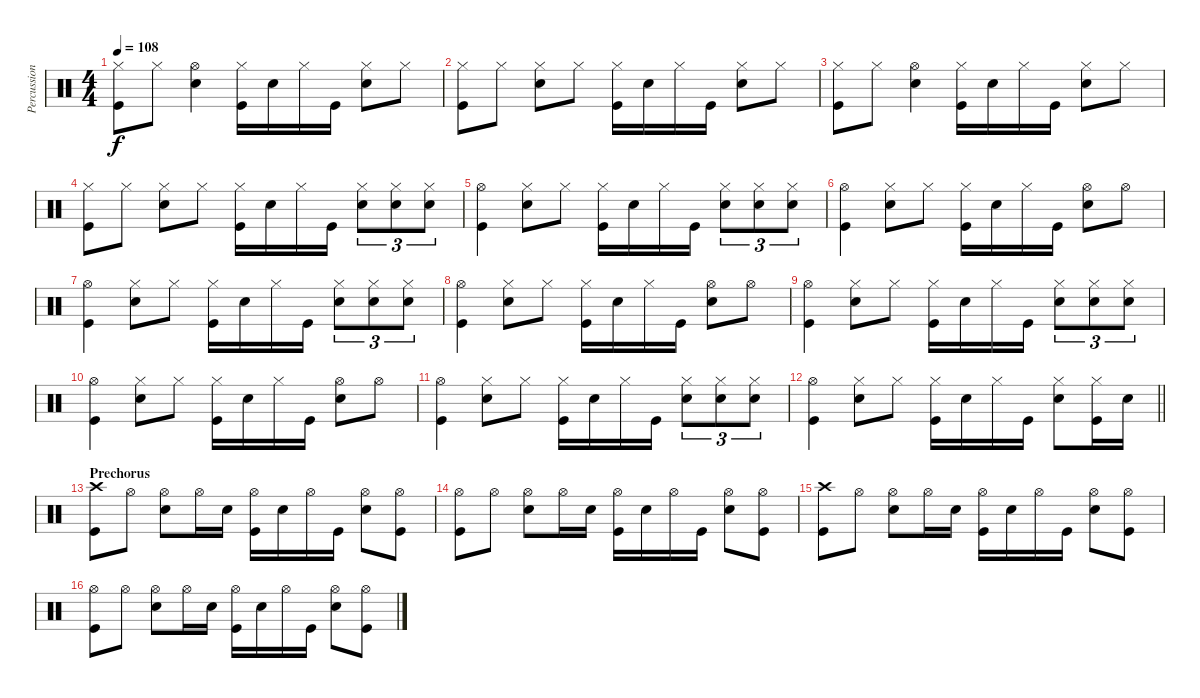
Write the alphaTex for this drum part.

\track ("Percussion" "Percussion") {instrument percussion}
\staff {score}
\articulation defaults
\ts (4 4)
\tempo 108
\clef neutral
\ks c
("Hi-Hat (closed)" "Kick (hit)").8{dy f} "Hi-Hat (closed)".8 ("Hi-Hat (open)" "Electric Snare (hit)").4 ("Hi-Hat (closed)" "Kick (hit)").16 "Electric Snare (hit)".16 "Hi-Hat (closed)".16 "Kick (hit)".16 ("Hi-Hat (closed)" "Electric Snare (hit)").8 "Hi-Hat (closed)".8 |
("Hi-Hat (closed)" "Kick (hit)").8 "Hi-Hat (closed)".8 ("Hi-Hat (closed)" "Electric Snare (hit)").8 "Hi-Hat (closed)".8 ("Hi-Hat (closed)" "Kick (hit)").16 "Electric Snare (hit)".16 "Hi-Hat (closed)".16 "Kick (hit)".16 ("Hi-Hat (closed)" "Electric Snare (hit)").8 "Hi-Hat (closed)".8 |
("Hi-Hat (closed)" "Kick (hit)").8 "Hi-Hat (closed)".8 ("Hi-Hat (open)" "Electric Snare (hit)").4 ("Hi-Hat (closed)" "Kick (hit)").16 "Electric Snare (hit)".16 "Hi-Hat (closed)".16 "Kick (hit)".16 ("Hi-Hat (closed)" "Electric Snare (hit)").8 "Hi-Hat (closed)".8 |
("Hi-Hat (closed)" "Kick (hit)").8 "Hi-Hat (closed)".8 ("Hi-Hat (closed)" "Electric Snare (hit)").8 "Hi-Hat (closed)".8 ("Hi-Hat (closed)" "Kick (hit)").16 "Electric Snare (hit)".16 "Hi-Hat (closed)".16 "Kick (hit)".16 ("Hi-Hat (closed)" "Electric Snare (hit)").8{tu (3 2)} ("Hi-Hat (closed)" "Electric Snare (hit)").8{tu (3 2)} ("Hi-Hat (closed)" "Electric Snare (hit)").8{tu (3 2)} |
("Hi-Hat (open)" "Kick (hit)").4 ("Hi-Hat (closed)" "Electric Snare (hit)").8 "Hi-Hat (closed)".8 ("Hi-Hat (closed)" "Kick (hit)").16 "Electric Snare (hit)".16 "Hi-Hat (closed)".16 "Kick (hit)".16 ("Hi-Hat (closed)" "Electric Snare (hit)").8{tu (3 2)} ("Hi-Hat (closed)" "Electric Snare (hit)").8{tu (3 2)} ("Hi-Hat (closed)" "Electric Snare (hit)").8{tu (3 2)} |
("Hi-Hat (open)" "Kick (hit)").4 ("Hi-Hat (closed)" "Electric Snare (hit)").8 "Hi-Hat (closed)".8 ("Hi-Hat (closed)" "Kick (hit)").16 "Electric Snare (hit)".16 "Hi-Hat (closed)".16 "Kick (hit)".16 ("Hi-Hat (open)" "Electric Snare (hit)").8 "Hi-Hat (open)".8 |
("Hi-Hat (open)" "Kick (hit)").4 ("Hi-Hat (closed)" "Electric Snare (hit)").8 "Hi-Hat (closed)".8 ("Hi-Hat (closed)" "Kick (hit)").16 "Electric Snare (hit)".16 "Hi-Hat (closed)".16 "Kick (hit)".16 ("Hi-Hat (closed)" "Electric Snare (hit)").8{tu (3 2)} ("Hi-Hat (closed)" "Electric Snare (hit)").8{tu (3 2)} ("Hi-Hat (closed)" "Electric Snare (hit)").8{tu (3 2)} |
("Hi-Hat (open)" "Kick (hit)").4 ("Hi-Hat (closed)" "Electric Snare (hit)").8 "Hi-Hat (closed)".8 ("Hi-Hat (closed)" "Kick (hit)").16 "Electric Snare (hit)".16 "Hi-Hat (closed)".16 "Kick (hit)".16 ("Hi-Hat (open)" "Electric Snare (hit)").8 "Hi-Hat (open)".8 |
("Hi-Hat (open)" "Kick (hit)").4 ("Hi-Hat (closed)" "Electric Snare (hit)").8 "Hi-Hat (closed)".8 ("Hi-Hat (closed)" "Kick (hit)").16 "Electric Snare (hit)".16 "Hi-Hat (closed)".16 "Kick (hit)".16 ("Hi-Hat (closed)" "Electric Snare (hit)").8{tu (3 2)} ("Hi-Hat (closed)" "Electric Snare (hit)").8{tu (3 2)} ("Hi-Hat (closed)" "Electric Snare (hit)").8{tu (3 2)} |
("Hi-Hat (open)" "Kick (hit)").4 ("Hi-Hat (closed)" "Electric Snare (hit)").8 "Hi-Hat (closed)".8 ("Hi-Hat (closed)" "Kick (hit)").16 "Electric Snare (hit)".16 "Hi-Hat (closed)".16 "Kick (hit)".16 ("Hi-Hat (open)" "Electric Snare (hit)").8 "Hi-Hat (open)".8 |
("Hi-Hat (open)" "Kick (hit)").4 ("Hi-Hat (closed)" "Electric Snare (hit)").8 "Hi-Hat (closed)".8 ("Hi-Hat (closed)" "Kick (hit)").16 "Electric Snare (hit)".16 "Hi-Hat (closed)".16 "Kick (hit)".16 ("Hi-Hat (closed)" "Electric Snare (hit)").8{tu (3 2)} ("Hi-Hat (closed)" "Electric Snare (hit)").8{tu (3 2)} ("Hi-Hat (closed)" "Electric Snare (hit)").8{tu (3 2)} |
\barLineRight lightlight
("Hi-Hat (open)" "Kick (hit)").4 ("Hi-Hat (closed)" "Electric Snare (hit)").8 "Hi-Hat (closed)".8 ("Hi-Hat (closed)" "Kick (hit)").16 "Electric Snare (hit)".16 "Hi-Hat (closed)".16 "Kick (hit)".16 ("Hi-Hat (closed)" "Electric Snare (hit)").8 ("Hi-Hat (closed)" "Kick (hit)").16 "Electric Snare (hit)".16 |
\section ("" "Prechorus")
("Crash high (hit)" "Kick (hit)").8 "Hi-Hat (open)".8 ("Hi-Hat (open)" "Electric Snare (hit)").8 "Hi-Hat (open)".16 "Electric Snare (hit)".16 ("Hi-Hat (open)" "Kick (hit)").16 "Electric Snare (hit)".16 "Hi-Hat (open)".16 "Kick (hit)".16 ("Hi-Hat (open)" "Electric Snare (hit)").8 ("Hi-Hat (open)" "Kick (hit)").8 |
("Hi-Hat (open)" "Kick (hit)").8 "Hi-Hat (open)".8 ("Hi-Hat (open)" "Electric Snare (hit)").8 "Hi-Hat (open)".16 "Electric Snare (hit)".16 ("Hi-Hat (open)" "Kick (hit)").16 "Electric Snare (hit)".16 "Hi-Hat (open)".16 "Kick (hit)".16 ("Hi-Hat (open)" "Electric Snare (hit)").8 ("Hi-Hat (open)" "Kick (hit)").8 |
("Crash high (hit)" "Kick (hit)").8 "Hi-Hat (open)".8 ("Hi-Hat (open)" "Electric Snare (hit)").8 "Hi-Hat (open)".16 "Electric Snare (hit)".16 ("Hi-Hat (open)" "Kick (hit)").16 "Electric Snare (hit)".16 "Hi-Hat (open)".16 "Kick (hit)".16 ("Hi-Hat (open)" "Electric Snare (hit)").8 ("Hi-Hat (open)" "Kick (hit)").8 |
("Hi-Hat (open)" "Kick (hit)").8 "Hi-Hat (open)".8 ("Hi-Hat (open)" "Electric Snare (hit)").8 "Hi-Hat (open)".16 "Electric Snare (hit)".16 ("Hi-Hat (open)" "Kick (hit)").16 "Electric Snare (hit)".16 "Hi-Hat (open)".16 "Kick (hit)".16 ("Hi-Hat (open)" "Electric Snare (hit)").8 ("Hi-Hat (open)" "Kick (hit)").8
